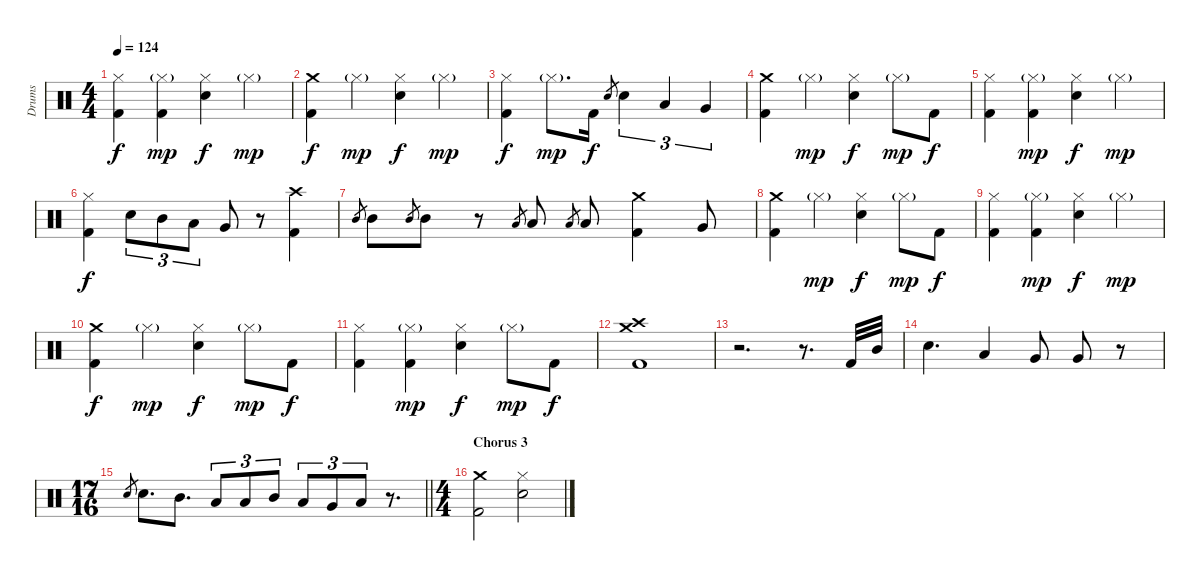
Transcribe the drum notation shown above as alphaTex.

\track ("Drums" "Drums") {instrument percussion}
\staff {score}
\articulation defaults
\ts (4 4)
\tempo 124
\clef neutral
\ks c
("Hi-Hat (closed)" "Kick (hit) 2").4{dy f} ("Hi-Hat (closed)"{g} "Kick (hit) 2").4{dy mp} ("Hi-Hat (closed)" "Snare (hit) 2").4{dy f} "Hi-Hat (closed)"{g}.4{dy mp} |
("Crash medium (hit)" "Kick (hit) 2").4{dy f} "Hi-Hat (closed)"{g}.4{dy mp} ("Hi-Hat (closed)" "Snare (hit) 2").4{dy f} "Hi-Hat (closed)"{g}.4{dy mp} |
("Hi-Hat (closed)" "Kick (hit) 2").4{dy f} "Hi-Hat (closed)"{g}.8{d dy mp} "Kick (hit) 2".16{dy f} "Snare (hit) 2".8{gr} "Snare (hit) 2".4{tu (3 2)} "Low Tom (hit)".4{tu (3 2)} "Very Low Tom (hit)".4{tu (3 2)} |
("Crash medium (hit)" "Kick (hit) 2").4 "Hi-Hat (closed)"{g}.4{dy mp} ("Hi-Hat (closed)" "Snare (hit) 2").4{dy f} "Hi-Hat (closed)"{g}.8{dy mp} "Kick (hit) 2".8{dy f} |
("Hi-Hat (closed)" "Kick (hit) 2").4 ("Hi-Hat (closed)"{g} "Kick (hit) 2").4{dy mp} ("Hi-Hat (closed)" "Snare (hit) 2").4{dy f} "Hi-Hat (closed)"{g}.4{dy mp} |
("Hi-Hat (closed)" "Kick (hit) 2").4{dy f} "Snare (hit) 2".8{tu (3 2)} "Mid Tom (hit)".8{tu (3 2)} "Low Tom (hit)".8{tu (3 2)} "Very Low Tom (hit)".8 r.8 ("Crash high (hit)" "Kick (hit) 2").4 |
"Mid Tom (hit)".8{gr} "Mid Tom (hit)".8 "Mid Tom (hit)".8{gr} "Mid Tom (hit)".8 r.8 "Low Tom (hit)".8{gr} "Low Tom (hit)".8 "Low Tom (hit)".8{gr} "Low Tom (hit)".8 ("Crash medium (hit)" "Kick (hit) 2").4 "Very Low Tom (hit)".8 |
("Crash medium (hit)" "Kick (hit) 2").4 "Hi-Hat (closed)"{g}.4{dy mp} ("Hi-Hat (closed)" "Snare (hit) 2").4{dy f} "Hi-Hat (closed)"{g}.8{dy mp} "Kick (hit) 2".8{dy f} |
("Hi-Hat (closed)" "Kick (hit) 2").4 ("Hi-Hat (closed)"{g} "Kick (hit) 2").4{dy mp} ("Hi-Hat (closed)" "Snare (hit) 2").4{dy f} "Hi-Hat (closed)"{g}.4{dy mp} |
("Crash medium (hit)" "Kick (hit) 2").4{dy f} "Hi-Hat (closed)"{g}.4{dy mp} ("Hi-Hat (closed)" "Snare (hit) 2").4{dy f} "Hi-Hat (closed)"{g}.8{dy mp} "Kick (hit) 2".8{dy f} |
("Hi-Hat (closed)" "Kick (hit) 2").4 ("Hi-Hat (closed)"{g} "Kick (hit) 2").4{dy mp} ("Hi-Hat (closed)" "Snare (hit) 2").4{dy f} "Hi-Hat (closed)"{g}.8{dy mp} "Kick (hit) 2".8{dy f} |
("Crash medium (hit)" "Crash high (hit)" "Kick (hit) 2").1 |
r.2{d} r.8{d} "Kick (hit) 2".32 "Mid Tom (hit)".32 |
"Snare (hit) 2".4{d} "Low Tom (hit)".4 "Very Low Tom (hit)".8 "Very Low Tom (hit)".8 r.8 |
\ts (17 16)
\barLineRight lightlight "Snare (hit) 2".8{gr} "Snare (hit) 2".8{d} "Mid Tom (hit)".8{d} "Low Tom (hit)".8{tu (3 2)} "Low Tom (hit)".8{tu (3 2)} "Mid Tom (hit)".8{tu (3 2)} "Low Tom (hit)".8{tu (3 2)} "Very Low Tom (hit)".8{tu (3 2)} "Low Floor Tom (hit)".8{tu (3 2)}
r.8{d} |
\ts (4 4)
\section ("" "Chorus 3")
("Crash medium (hit)" "Kick (hit) 2").2 ("Hi-Hat (closed)" "Snare (hit) 2").2
